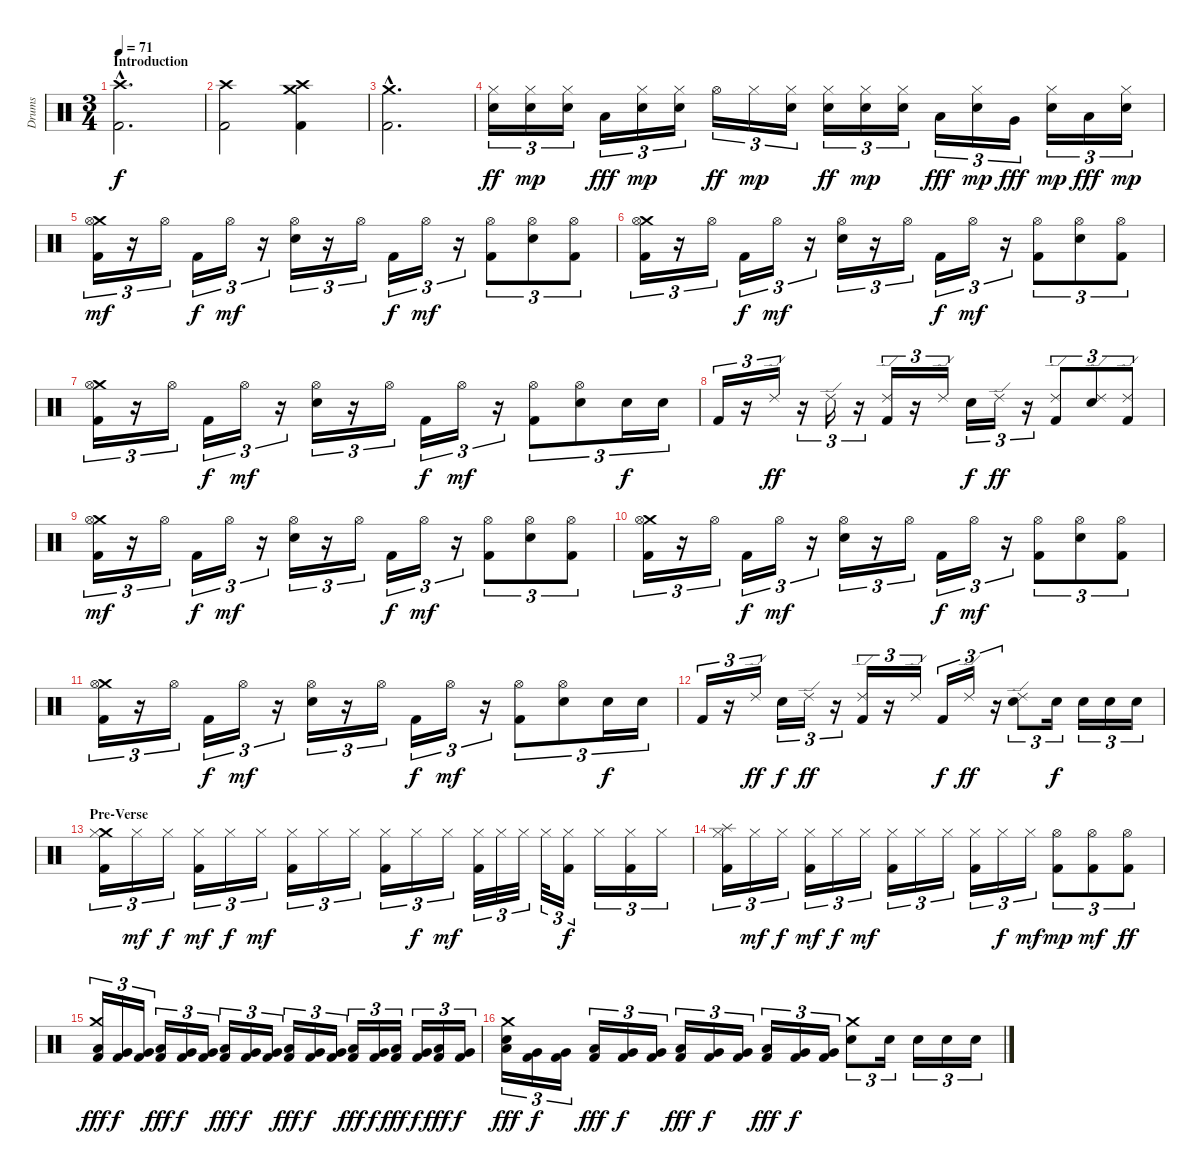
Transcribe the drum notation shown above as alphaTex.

\track ("Drums" "Drums") {instrument percussion}
\staff {score}
\articulation defaults
\ts (3 4)
\section ("" "Introduction")
\tempo 71
\clef neutral
\ks c
("Crash high (hit)"{hac} "Kick (hit) 2"{hac}).2{d dy f} |
("Crash high (hit)" "Kick (hit) 2").2 ("Crash high (hit)" "Crash medium (hit)" "Kick (hit) 2").4 |
("Crash medium (hit)"{hac} "Kick (hit) 2"{hac}).2{d} |
("Hi-Hat (closed)" "Electric Snare (hit)").16{tu (3 2) dy ff} ("Hi-Hat (closed)" "Electric Snare (hit)").16{tu (3 2) dy mp} ("Hi-Hat (closed)" "Electric Snare (hit)").16{tu (3 2)} "Low Tom (hit)".16{tu (3 2) dy fff} ("Hi-Hat (closed)" "Electric Snare (hit)").16{tu (3 2) dy mp} ("Hi-Hat (closed)" "Electric Snare (hit)").16{tu (3 2)} "Hi-Hat (open)".16{tu (3 2) dy ff} "Hi-Hat (closed)".16{tu (3 2) dy mp} ("Hi-Hat (closed)" "Electric Snare (hit)").16{tu (3 2)} ("Hi-Hat (closed)" "Electric Snare (hit)").16{tu (3 2) dy ff} ("Hi-Hat (closed)" "Electric Snare (hit)").16{tu (3 2) dy mp} ("Hi-Hat (closed)" "Electric Snare (hit)").16{tu (3 2)} "Low Tom (hit)".16{tu (3 2) dy fff} ("Hi-Hat (closed)" "Electric Snare (hit)").16{tu (3 2) dy mp} "Very Low Tom (hit)".16{tu (3 2) dy fff} ("Hi-Hat (closed)" "Electric Snare (hit)").16{tu (3 2) dy mp} "Low Floor Tom (hit)".16{tu (3 2) dy fff} ("Hi-Hat (closed)" "Electric Snare (hit)").16{tu (3 2) dy mp} |
("Crash medium (hit)" "Hi-Hat (open)" "Kick (hit) 2").16{tu (3 2) dy mf} r.16{tu (3 2)} "Hi-Hat (open)".16{tu (3 2)} "Kick (hit) 2".16{tu (3 2) dy f} "Hi-Hat (open)".16{tu (3 2) dy mf} r.16{tu (3 2)} ("Hi-Hat (open)" "Electric Snare (hit)").16{tu (3 2)} r.16{tu (3 2)} "Hi-Hat (open)".16{tu (3 2)} "Kick (hit) 2".16{tu (3 2) dy f} "Hi-Hat (open)".16{tu (3 2) dy mf} r.16{tu (3 2)} ("Hi-Hat (open)" "Kick (hit) 2").8{tu (3 2)} ("Hi-Hat (open)" "Electric Snare (hit)").8{tu (3 2)} ("Hi-Hat (open)" "Kick (hit) 2").8{tu (3 2)} |
("Crash medium (hit)" "Hi-Hat (open)" "Kick (hit) 2").16{tu (3 2)} r.16{tu (3 2)} "Hi-Hat (open)".16{tu (3 2)} "Kick (hit) 2".16{tu (3 2) dy f} "Hi-Hat (open)".16{tu (3 2) dy mf} r.16{tu (3 2)} ("Hi-Hat (open)" "Electric Snare (hit)").16{tu (3 2)} r.16{tu (3 2)} "Hi-Hat (open)".16{tu (3 2)} "Kick (hit) 2".16{tu (3 2) dy f} "Hi-Hat (open)".16{tu (3 2) dy mf} r.16{tu (3 2)} ("Hi-Hat (open)" "Kick (hit) 2").8{tu (3 2)} ("Hi-Hat (open)" "Electric Snare (hit)").8{tu (3 2)} ("Hi-Hat (open)" "Kick (hit) 2").8{tu (3 2)} |
("Crash medium (hit)" "Hi-Hat (open)" "Kick (hit) 2").16{tu (3 2)} r.16{tu (3 2)} "Hi-Hat (open)".16{tu (3 2)} "Kick (hit) 2".16{tu (3 2) dy f} "Hi-Hat (open)".16{tu (3 2) dy mf} r.16{tu (3 2)} ("Hi-Hat (open)" "Electric Snare (hit)").16{tu (3 2)} r.16{tu (3 2)} "Hi-Hat (open)".16{tu (3 2)} "Kick (hit) 2".16{tu (3 2) dy f} "Hi-Hat (open)".16{tu (3 2) dy mf} r.16{tu (3 2)} ("Hi-Hat (open)" "Kick (hit) 2").8{tu (3 2)} ("Hi-Hat (open)" "Electric Snare (hit)").8{tu (3 2)} "Electric Snare (hit)".16{tu (3 2) dy f} "Electric Snare (hit)".16{tu (3 2)} |
"Kick (hit) 2".16{tu (3 2)} r.16{tu (3 2)} "Ride (edge) 2".16{tu (3 2) dy ff} r.16{tu (3 2)} "Ride (edge) 2".16{tu (3 2)} r.16{tu (3 2)} ("Ride (edge) 2" "Kick (hit) 2").16{tu (3 2)} r.16{tu (3 2)} "Ride (edge) 2".16{tu (3 2)} "Electric Snare (hit)".16{tu (3 2) dy f} "Ride (edge) 2".16{tu (3 2) dy ff} r.16{tu (3 2)} ("Ride (edge) 2" "Kick (hit) 2").8{tu (3 2)} ("Ride (edge) 2" "Electric Snare (hit)").8{tu (3 2)} ("Ride (edge) 2" "Kick (hit) 2").8{tu (3 2)} |
("Crash medium (hit)" "Hi-Hat (open)" "Kick (hit) 2").16{tu (3 2) dy mf} r.16{tu (3 2)} "Hi-Hat (open)".16{tu (3 2)} "Kick (hit) 2".16{tu (3 2) dy f} "Hi-Hat (open)".16{tu (3 2) dy mf} r.16{tu (3 2)} ("Hi-Hat (open)" "Electric Snare (hit)").16{tu (3 2)} r.16{tu (3 2)} "Hi-Hat (open)".16{tu (3 2)} "Kick (hit) 2".16{tu (3 2) dy f} "Hi-Hat (open)".16{tu (3 2) dy mf} r.16{tu (3 2)} ("Hi-Hat (open)" "Kick (hit) 2").8{tu (3 2)} ("Hi-Hat (open)" "Electric Snare (hit)").8{tu (3 2)} ("Hi-Hat (open)" "Kick (hit) 2").8{tu (3 2)} |
("Crash medium (hit)" "Hi-Hat (open)" "Kick (hit) 2").16{tu (3 2)} r.16{tu (3 2)} "Hi-Hat (open)".16{tu (3 2)} "Kick (hit) 2".16{tu (3 2) dy f} "Hi-Hat (open)".16{tu (3 2) dy mf} r.16{tu (3 2)} ("Hi-Hat (open)" "Electric Snare (hit)").16{tu (3 2)} r.16{tu (3 2)} "Hi-Hat (open)".16{tu (3 2)} "Kick (hit) 2".16{tu (3 2) dy f} "Hi-Hat (open)".16{tu (3 2) dy mf} r.16{tu (3 2)} ("Hi-Hat (open)" "Kick (hit) 2").8{tu (3 2)} ("Hi-Hat (open)" "Electric Snare (hit)").8{tu (3 2)} ("Hi-Hat (open)" "Kick (hit) 2").8{tu (3 2)} |
("Crash medium (hit)" "Hi-Hat (open)" "Kick (hit) 2").16{tu (3 2)} r.16{tu (3 2)} "Hi-Hat (open)".16{tu (3 2)} "Kick (hit) 2".16{tu (3 2) dy f} "Hi-Hat (open)".16{tu (3 2) dy mf} r.16{tu (3 2)} ("Hi-Hat (open)" "Electric Snare (hit)").16{tu (3 2)} r.16{tu (3 2)} "Hi-Hat (open)".16{tu (3 2)} "Kick (hit) 2".16{tu (3 2) dy f} "Hi-Hat (open)".16{tu (3 2) dy mf} r.16{tu (3 2)} ("Hi-Hat (open)" "Kick (hit) 2").8{tu (3 2)} ("Hi-Hat (open)" "Electric Snare (hit)").8{tu (3 2)} "Electric Snare (hit)".16{tu (3 2) dy f} "Electric Snare (hit)".16{tu (3 2)} |
"Kick (hit) 2".16{tu (3 2)} r.16{tu (3 2)} "Ride (edge) 2".16{tu (3 2) dy ff} "Electric Snare (hit)".16{tu (3 2) dy f} "Ride (edge) 2".16{tu (3 2) dy ff} r.16{tu (3 2)} ("Ride (edge) 2" "Kick (hit) 2").16{tu (3 2)} r.16{tu (3 2)} "Ride (edge) 2".16{tu (3 2)} "Kick (hit) 2".16{tu (3 2) dy f} "Ride (edge) 2".16{tu (3 2) dy ff} r.16{tu (3 2)} ("Ride (edge) 2" "Electric Snare (hit)").8{tu (3 2)} "Electric Snare (hit)".16{tu (3 2) dy f} "Electric Snare (hit)".16{tu (3 2)} "Electric Snare (hit)".16{tu (3 2)} "Electric Snare (hit)".16{tu (3 2)} |
\section ("" "Pre-Verse")
("Crash medium (hit)" "Hi-Hat (closed)" "Kick (hit) 2").16{tu (3 2)} "Hi-Hat (closed)".16{tu (3 2) dy mf} "Hi-Hat (closed)".16{tu (3 2) dy f} ("Hi-Hat (closed)" "Kick (hit) 2").16{tu (3 2) dy mf} "Hi-Hat (closed)".16{tu (3 2) dy f} "Hi-Hat (closed)".16{tu (3 2) dy mf} ("Hi-Hat (closed)" "Kick (hit) 2").16{tu (3 2)} "Hi-Hat (closed)".16{tu (3 2)} "Hi-Hat (closed)".16{tu (3 2)} ("Hi-Hat (closed)" "Kick (hit) 2").16{tu (3 2)} "Hi-Hat (closed)".16{tu (3 2) dy f} "Hi-Hat (closed)".16{tu (3 2) dy mf} ("Hi-Hat (closed)" "Kick (hit) 2").32{tu (3 2)} "Hi-Hat (closed)".32{tu (3 2)} "Hi-Hat (closed)".32{tu (3 2)} "Hi-Hat (closed)".32{tu (3 2)} ("Hi-Hat (closed)" "Kick (hit) 2").16{tu (3 2) dy f} "Hi-Hat (closed)".16{tu (3 2)} ("Hi-Hat (closed)" "Kick (hit) 2").16{tu (3 2)} "Hi-Hat (closed)".16{tu (3 2)} |
("Splash (hit)" "Hi-Hat (closed)" "Kick (hit) 2").16{tu (3 2)} "Hi-Hat (closed)".16{tu (3 2) dy mf} "Hi-Hat (closed)".16{tu (3 2) dy f} ("Hi-Hat (closed)" "Kick (hit) 2").16{tu (3 2) dy mf} "Hi-Hat (closed)".16{tu (3 2) dy f} "Hi-Hat (closed)".16{tu (3 2) dy mf} ("Hi-Hat (closed)" "Kick (hit) 2").16{tu (3 2)} "Hi-Hat (closed)".16{tu (3 2)} "Hi-Hat (closed)".16{tu (3 2)} ("Hi-Hat (closed)" "Kick (hit) 2").16{tu (3 2)} "Hi-Hat (closed)".16{tu (3 2) dy f} "Hi-Hat (closed)".16{tu (3 2) dy mf} ("Hi-Hat (open)" "Kick (hit) 2").8{tu (3 2) dy mp} ("Hi-Hat (open)" "Kick (hit) 2").8{tu (3 2) dy mf} ("Hi-Hat (open)" "Kick (hit) 2").8{tu (3 2) dy ff} |
("Crash medium (hit)" "Low Tom (hit)" "Kick (hit) 2").16{tu (3 2) dy fff} ("Very Low Tom (hit)" "Kick (hit) 2").16{tu (3 2) dy f} ("Very Low Tom (hit)" "Kick (hit) 2").16{tu (3 2)} ("Low Tom (hit)" "Kick (hit) 2").16{tu (3 2) dy fff} ("Very Low Tom (hit)" "Kick (hit) 2").16{tu (3 2) dy f} ("Very Low Tom (hit)" "Kick (hit) 2").16{tu (3 2)} ("Low Tom (hit)" "Kick (hit) 2").16{tu (3 2) dy fff} ("Very Low Tom (hit)" "Kick (hit) 2").16{tu (3 2) dy f} ("Very Low Tom (hit)" "Kick (hit) 2").16{tu (3 2)} ("Low Tom (hit)" "Kick (hit) 2").16{tu (3 2) dy fff} ("Very Low Tom (hit)" "Kick (hit) 2").16{tu (3 2) dy f} ("Very Low Tom (hit)" "Kick (hit) 2").16{tu (3 2)} ("Low Tom (hit)" "Kick (hit) 2").16{tu (3 2) dy fff} ("Very Low Tom (hit)" "Kick (hit) 2").16{tu (3 2) dy f} ("Low Tom (hit)" "Kick (hit) 2").16{tu (3 2) dy fff} ("Very Low Tom (hit)" "Kick (hit) 2").16{tu (3 2) dy f} ("Low Tom (hit)" "Kick (hit) 2").16{tu (3 2) dy fff} ("Very Low Tom (hit)" "Kick (hit) 2").16{tu (3 2) dy f} |
("Crash medium (hit)" "Low Tom (hit)" "Electric Snare (hit)").16{tu (3 2) dy fff} ("Very Low Tom (hit)" "Kick (hit) 2").16{tu (3 2) dy f} ("Very Low Tom (hit)" "Kick (hit) 2").16{tu (3 2)} ("Low Tom (hit)" "Kick (hit) 2").16{tu (3 2) dy fff} ("Very Low Tom (hit)" "Kick (hit) 2").16{tu (3 2) dy f} ("Very Low Tom (hit)" "Kick (hit) 2").16{tu (3 2)} ("Low Tom (hit)" "Kick (hit) 2").16{tu (3 2) dy fff} ("Very Low Tom (hit)" "Kick (hit) 2").16{tu (3 2) dy f} ("Very Low Tom (hit)" "Kick (hit) 2").16{tu (3 2)} ("Low Tom (hit)" "Kick (hit) 2").16{tu (3 2) dy fff} ("Very Low Tom (hit)" "Kick (hit) 2").16{tu (3 2) dy f} ("Very Low Tom (hit)" "Kick (hit) 2").16{tu (3 2)} ("Crash medium (hit)" "Electric Snare (hit)").8{tu (3 2)} "Electric Snare (hit)".16{tu (3 2)} "Electric Snare (hit)".16{tu (3 2)} "Electric Snare (hit)".16{tu (3 2)} "Electric Snare (hit)".16{tu (3 2)}
